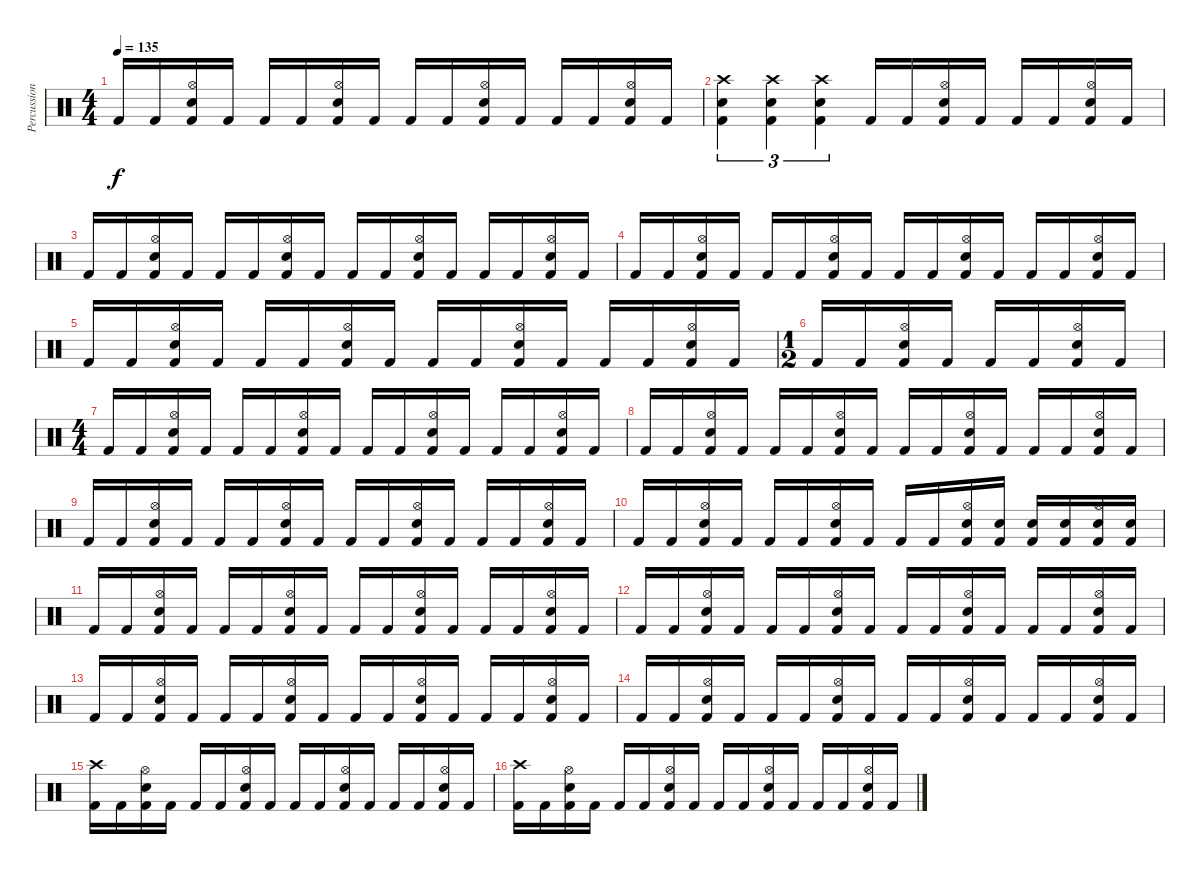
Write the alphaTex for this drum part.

\track ("Percussions" "Percussion") {instrument percussion}
\staff {score}
\articulation defaults
\ts (4 4)
\tempo 135
\clef neutral
\ks c "Kick (hit) 2".16{dy f} "Kick (hit) 2".16
("Hi-Hat (open)" "Snare (hit) 2" "Kick (hit) 2").16 "Kick (hit) 2".16 "Kick (hit) 2".16 "Kick (hit) 2".16 ("Hi-Hat (open)" "Snare (hit) 2" "Kick (hit) 2").16 "Kick (hit) 2".16 "Kick (hit) 2".16 "Kick (hit) 2".16 ("Hi-Hat (open)" "Snare (hit) 2" "Kick (hit) 2").16 "Kick (hit) 2".16 "Kick (hit) 2".16 "Kick (hit) 2".16 ("Hi-Hat (open)" "Snare (hit) 2" "Kick (hit) 2").16 "Kick (hit) 2".16 |
("Snare (hit) 2" "Crash high (hit)" "Kick (hit) 2").4{tu (3 2)} ("Snare (hit) 2" "Crash high (hit)" "Kick (hit) 2").4{tu (3 2)} ("Snare (hit) 2" "Crash high (hit)" "Kick (hit) 2").4{tu (3 2)} "Kick (hit) 2".16 "Kick (hit) 2".16 ("Snare (hit) 2" "Hi-Hat (open)" "Kick (hit) 2").16 "Kick (hit) 2".16 "Kick (hit) 2".16 "Kick (hit) 2".16 ("Snare (hit) 2" "Hi-Hat (open)" "Kick (hit) 2").16 "Kick (hit) 2".16 |
"Kick (hit) 2".16 "Kick (hit) 2".16 ("Hi-Hat (open)" "Snare (hit) 2" "Kick (hit) 2").16 "Kick (hit) 2".16 "Kick (hit) 2".16 "Kick (hit) 2".16 ("Hi-Hat (open)" "Snare (hit) 2" "Kick (hit) 2").16 "Kick (hit) 2".16 "Kick (hit) 2".16 "Kick (hit) 2".16 ("Hi-Hat (open)" "Snare (hit) 2" "Kick (hit) 2").16 "Kick (hit) 2".16 "Kick (hit) 2".16 "Kick (hit) 2".16 ("Hi-Hat (open)" "Snare (hit) 2" "Kick (hit) 2").16 "Kick (hit) 2".16 |
"Kick (hit) 2".16 "Kick (hit) 2".16 ("Hi-Hat (open)" "Snare (hit) 2" "Kick (hit) 2").16 "Kick (hit) 2".16 "Kick (hit) 2".16 "Kick (hit) 2".16 ("Hi-Hat (open)" "Snare (hit) 2" "Kick (hit) 2").16 "Kick (hit) 2".16 "Kick (hit) 2".16 "Kick (hit) 2".16 ("Hi-Hat (open)" "Snare (hit) 2" "Kick (hit) 2").16 "Kick (hit) 2".16 "Kick (hit) 2".16 "Kick (hit) 2".16 ("Hi-Hat (open)" "Snare (hit) 2" "Kick (hit) 2").16 "Kick (hit) 2".16 |
"Kick (hit) 2".16 "Kick (hit) 2".16 ("Hi-Hat (open)" "Snare (hit) 2" "Kick (hit) 2").16 "Kick (hit) 2".16 "Kick (hit) 2".16 "Kick (hit) 2".16 ("Hi-Hat (open)" "Snare (hit) 2" "Kick (hit) 2").16 "Kick (hit) 2".16 "Kick (hit) 2".16 "Kick (hit) 2".16 ("Hi-Hat (open)" "Snare (hit) 2" "Kick (hit) 2").16 "Kick (hit) 2".16 "Kick (hit) 2".16 "Kick (hit) 2".16 ("Hi-Hat (open)" "Snare (hit) 2" "Kick (hit) 2").16 "Kick (hit) 2".16 |
\ts (1 2)
"Kick (hit) 2".16 "Kick (hit) 2".16 ("Hi-Hat (open)" "Snare (hit) 2" "Kick (hit) 2").16 "Kick (hit) 2".16 "Kick (hit) 2".16 "Kick (hit) 2".16 ("Hi-Hat (open)" "Snare (hit) 2" "Kick (hit) 2").16 "Kick (hit) 2".16 |
\ts (4 4)
"Kick (hit) 2".16 "Kick (hit) 2".16 ("Hi-Hat (open)" "Snare (hit) 2" "Kick (hit) 2").16 "Kick (hit) 2".16 "Kick (hit) 2".16 "Kick (hit) 2".16 ("Hi-Hat (open)" "Snare (hit) 2" "Kick (hit) 2").16 "Kick (hit) 2".16 "Kick (hit) 2".16 "Kick (hit) 2".16 ("Hi-Hat (open)" "Snare (hit) 2" "Kick (hit) 2").16 "Kick (hit) 2".16 "Kick (hit) 2".16 "Kick (hit) 2".16 ("Hi-Hat (open)" "Snare (hit) 2" "Kick (hit) 2").16 "Kick (hit) 2".16 |
"Kick (hit) 2".16 "Kick (hit) 2".16 ("Hi-Hat (open)" "Snare (hit) 2" "Kick (hit) 2").16 "Kick (hit) 2".16 "Kick (hit) 2".16 "Kick (hit) 2".16 ("Hi-Hat (open)" "Snare (hit) 2" "Kick (hit) 2").16 "Kick (hit) 2".16 "Kick (hit) 2".16 "Kick (hit) 2".16 ("Hi-Hat (open)" "Snare (hit) 2" "Kick (hit) 2").16 "Kick (hit) 2".16 "Kick (hit) 2".16 "Kick (hit) 2".16 ("Hi-Hat (open)" "Snare (hit) 2" "Kick (hit) 2").16 "Kick (hit) 2".16 |
"Kick (hit) 2".16 "Kick (hit) 2".16 ("Hi-Hat (open)" "Snare (hit) 2" "Kick (hit) 2").16 "Kick (hit) 2".16 "Kick (hit) 2".16 "Kick (hit) 2".16 ("Hi-Hat (open)" "Snare (hit) 2" "Kick (hit) 2").16 "Kick (hit) 2".16 "Kick (hit) 2".16 "Kick (hit) 2".16 ("Hi-Hat (open)" "Snare (hit) 2" "Kick (hit) 2").16 "Kick (hit) 2".16 "Kick (hit) 2".16 "Kick (hit) 2".16 ("Hi-Hat (open)" "Snare (hit) 2" "Kick (hit) 2").16 "Kick (hit) 2".16 |
"Kick (hit) 2".16 "Kick (hit) 2".16 ("Hi-Hat (open)" "Snare (hit) 2" "Kick (hit) 2").16 "Kick (hit) 2".16 "Kick (hit) 2".16 "Kick (hit) 2".16 ("Hi-Hat (open)" "Snare (hit) 2" "Kick (hit) 2").16 "Kick (hit) 2".16 "Kick (hit) 2".16 "Kick (hit) 2".16 ("Hi-Hat (open)" "Snare (hit) 2" "Kick (hit) 2").16 ("Snare (hit) 2" "Kick (hit) 2").16 ("Snare (hit) 2" "Kick (hit) 2").16 ("Snare (hit) 2" "Kick (hit) 2").16 ("Hi-Hat (open)" "Snare (hit) 2" "Kick (hit) 2").16 ("Snare (hit) 2" "Kick (hit) 2").16 |
"Kick (hit) 2".16 "Kick (hit) 2".16 ("Hi-Hat (open)" "Snare (hit) 2" "Kick (hit) 2").16 "Kick (hit) 2".16 "Kick (hit) 2".16 "Kick (hit) 2".16 ("Hi-Hat (open)" "Snare (hit) 2" "Kick (hit) 2").16 "Kick (hit) 2".16 "Kick (hit) 2".16 "Kick (hit) 2".16 ("Hi-Hat (open)" "Snare (hit) 2" "Kick (hit) 2").16 "Kick (hit) 2".16 "Kick (hit) 2".16 "Kick (hit) 2".16 ("Hi-Hat (open)" "Snare (hit) 2" "Kick (hit) 2").16 "Kick (hit) 2".16 |
"Kick (hit) 2".16 "Kick (hit) 2".16 ("Hi-Hat (open)" "Snare (hit) 2" "Kick (hit) 2").16 "Kick (hit) 2".16 "Kick (hit) 2".16 "Kick (hit) 2".16 ("Hi-Hat (open)" "Snare (hit) 2" "Kick (hit) 2").16 "Kick (hit) 2".16 "Kick (hit) 2".16 "Kick (hit) 2".16 ("Hi-Hat (open)" "Snare (hit) 2" "Kick (hit) 2").16 "Kick (hit) 2".16 "Kick (hit) 2".16 "Kick (hit) 2".16 ("Hi-Hat (open)" "Snare (hit) 2" "Kick (hit) 2").16 "Kick (hit) 2".16 |
"Kick (hit) 2".16 "Kick (hit) 2".16 ("Hi-Hat (open)" "Snare (hit) 2" "Kick (hit) 2").16 "Kick (hit) 2".16 "Kick (hit) 2".16 "Kick (hit) 2".16 ("Hi-Hat (open)" "Snare (hit) 2" "Kick (hit) 2").16 "Kick (hit) 2".16 "Kick (hit) 2".16 "Kick (hit) 2".16 ("Hi-Hat (open)" "Snare (hit) 2" "Kick (hit) 2").16 "Kick (hit) 2".16 "Kick (hit) 2".16 "Kick (hit) 2".16 ("Hi-Hat (open)" "Snare (hit) 2" "Kick (hit) 2").16 "Kick (hit) 2".16 |
"Kick (hit) 2".16 "Kick (hit) 2".16 ("Hi-Hat (open)" "Snare (hit) 2" "Kick (hit) 2").16 "Kick (hit) 2".16 "Kick (hit) 2".16 "Kick (hit) 2".16 ("Hi-Hat (open)" "Snare (hit) 2" "Kick (hit) 2").16 "Kick (hit) 2".16 "Kick (hit) 2".16 "Kick (hit) 2".16 ("Hi-Hat (open)" "Snare (hit) 2" "Kick (hit) 2").16 "Kick (hit) 2".16 "Kick (hit) 2".16 "Kick (hit) 2".16 ("Hi-Hat (open)" "Snare (hit) 2" "Kick (hit) 2").16 "Kick (hit) 2".16 |
("Crash high (hit)" "Kick (hit) 2").16 "Kick (hit) 2".16 ("Hi-Hat (open)" "Snare (hit) 2" "Kick (hit) 2").16 "Kick (hit) 2".16 "Kick (hit) 2".16 "Kick (hit) 2".16 ("Hi-Hat (open)" "Snare (hit) 2" "Kick (hit) 2").16 "Kick (hit) 2".16 "Kick (hit) 2".16 "Kick (hit) 2".16 ("Hi-Hat (open)" "Snare (hit) 2" "Kick (hit) 2").16 "Kick (hit) 2".16 "Kick (hit) 2".16 "Kick (hit) 2".16 ("Hi-Hat (open)" "Snare (hit) 2" "Kick (hit) 2").16 "Kick (hit) 2".16 |
("Crash high (hit)" "Kick (hit) 2").16 "Kick (hit) 2".16 ("Hi-Hat (open)" "Snare (hit) 2" "Kick (hit) 2").16 "Kick (hit) 2".16 "Kick (hit) 2".16 "Kick (hit) 2".16 ("Hi-Hat (open)" "Snare (hit) 2" "Kick (hit) 2").16 "Kick (hit) 2".16 "Kick (hit) 2".16 "Kick (hit) 2".16 ("Hi-Hat (open)" "Snare (hit) 2" "Kick (hit) 2").16 "Kick (hit) 2".16 "Kick (hit) 2".16 "Kick (hit) 2".16 ("Hi-Hat (open)" "Snare (hit) 2" "Kick (hit) 2").16 "Kick (hit) 2".16
